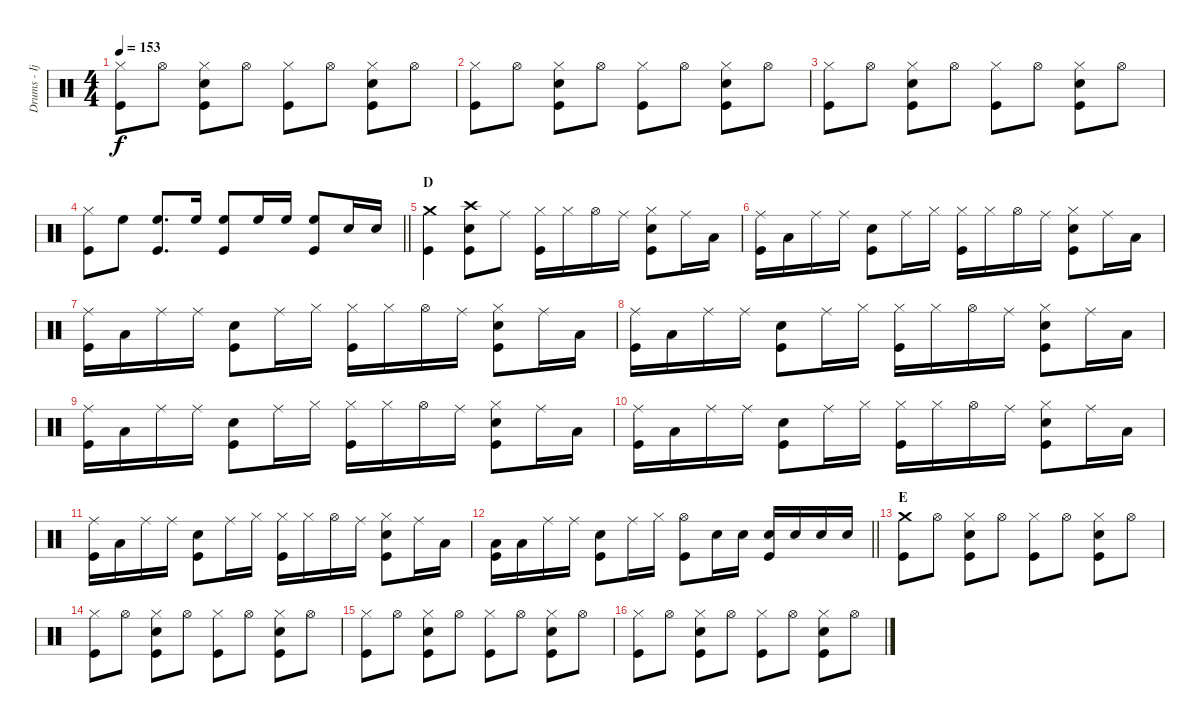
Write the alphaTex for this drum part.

\track ("Drums - Ijichi" "Drums - Ij") {instrument percussion}
\staff {score}
\articulation defaults
\ts (4 4)
\tempo 153
\clef neutral
\ks c
("Hi-Hat (closed)" "Kick (hit)").8{dy f} "Hi-Hat (open)".8 ("Hi-Hat (closed)" "Electric Snare (hit)" "Kick (hit)").8 "Hi-Hat (open)".8 ("Hi-Hat (closed)" "Kick (hit)").8 "Hi-Hat (open)".8 ("Hi-Hat (closed)" "Electric Snare (hit)" "Kick (hit)").8 "Hi-Hat (open)".8 |
("Hi-Hat (closed)" "Kick (hit)").8 "Hi-Hat (open)".8 ("Hi-Hat (closed)" "Electric Snare (hit)" "Kick (hit)").8 "Hi-Hat (open)".8 ("Hi-Hat (closed)" "Kick (hit)").8 "Hi-Hat (open)".8 ("Hi-Hat (closed)" "Electric Snare (hit)" "Kick (hit)").8 "Hi-Hat (open)".8 |
("Hi-Hat (closed)" "Kick (hit)").8 "Hi-Hat (open)".8 ("Hi-Hat (closed)" "Electric Snare (hit)" "Kick (hit)").8 "Hi-Hat (open)".8 ("Hi-Hat (closed)" "Kick (hit)").8 "Hi-Hat (open)".8 ("Hi-Hat (closed)" "Electric Snare (hit)" "Kick (hit)").8 "Hi-Hat (open)".8 |
\barLineRight lightlight
("Hi-Hat (closed)" "Kick (hit)").8 "High Floor Tom (hit)".8 ("High Floor Tom (hit)" "Kick (hit)").8{d} "High Floor Tom (hit)".16 ("High Floor Tom (hit)" "Kick (hit)").8 "High Floor Tom (hit)".16 "High Floor Tom (hit)".16 ("High Floor Tom (hit)" "Kick (hit)").8 "Electric Snare (hit)".16 "Electric Snare (hit)".16 |
\section ("" "D")
("Crash medium (hit)" "Kick (hit)").4 ("Crash high (hit)" "Electric Snare (hit)" "Kick (hit)").8 "Ride (middle)".8 ("Hi-Hat (closed)" "Kick (hit)").16 "Hi-Hat (closed)".16 "Hi-Hat (open)".16 "Ride (middle)".16 ("Hi-Hat (closed)" "Electric Snare (hit)" "Kick (hit)").8 "Ride (middle)".16 "Low Tom (hit)".16 |
("Ride (middle)" "Kick (hit)").16 "Low Tom (hit)".16 "Ride (middle)".16 "Ride (middle)".16 ("Electric Snare (hit)" "Kick (hit)").8 "Ride (middle)".16 "Hi-Hat (closed)".16 ("Hi-Hat (closed)" "Kick (hit)").16 "Hi-Hat (closed)".16 "Hi-Hat (open)".16 "Ride (middle)".16 ("Hi-Hat (closed)" "Electric Snare (hit)" "Kick (hit)").8 "Ride (middle)".16 "Low Tom (hit)".16 |
("Ride (middle)" "Kick (hit)").16 "Low Tom (hit)".16 "Ride (middle)".16 "Ride (middle)".16 ("Electric Snare (hit)" "Kick (hit)").8 "Ride (middle)".16 "Hi-Hat (closed)".16 ("Hi-Hat (closed)" "Kick (hit)").16 "Hi-Hat (closed)".16 "Hi-Hat (open)".16 "Ride (middle)".16 ("Hi-Hat (closed)" "Electric Snare (hit)" "Kick (hit)").8 "Ride (middle)".16 "Low Tom (hit)".16 |
("Ride (middle)" "Kick (hit)").16 "Low Tom (hit)".16 "Ride (middle)".16 "Ride (middle)".16 ("Electric Snare (hit)" "Kick (hit)").8 "Ride (middle)".16 "Hi-Hat (closed)".16 ("Hi-Hat (closed)" "Kick (hit)").16 "Hi-Hat (closed)".16 "Hi-Hat (open)".16 "Ride (middle)".16 ("Hi-Hat (closed)" "Electric Snare (hit)" "Kick (hit)").8 "Ride (middle)".16 "Low Tom (hit)".16 |
("Ride (middle)" "Kick (hit)").16 "Low Tom (hit)".16 "Ride (middle)".16 "Ride (middle)".16 ("Electric Snare (hit)" "Kick (hit)").8 "Ride (middle)".16 "Hi-Hat (closed)".16 ("Hi-Hat (closed)" "Kick (hit)").16 "Hi-Hat (closed)".16 "Hi-Hat (open)".16 "Ride (middle)".16 ("Hi-Hat (closed)" "Electric Snare (hit)" "Kick (hit)").8 "Ride (middle)".16 "Low Tom (hit)".16 |
("Ride (middle)" "Kick (hit)").16 "Low Tom (hit)".16 "Ride (middle)".16 "Ride (middle)".16 ("Electric Snare (hit)" "Kick (hit)").8 "Ride (middle)".16 "Hi-Hat (closed)".16 ("Hi-Hat (closed)" "Kick (hit)").16 "Hi-Hat (closed)".16 "Hi-Hat (open)".16 "Ride (middle)".16 ("Hi-Hat (closed)" "Electric Snare (hit)" "Kick (hit)").8 "Ride (middle)".16 "Low Tom (hit)".16 |
("Ride (middle)" "Kick (hit)").16 "Low Tom (hit)".16 "Ride (middle)".16 "Ride (middle)".16 ("Electric Snare (hit)" "Kick (hit)").8 "Ride (middle)".16 "Hi-Hat (closed)".16 ("Hi-Hat (closed)" "Kick (hit)").16 "Hi-Hat (closed)".16 "Hi-Hat (open)".16 "Ride (middle)".16 ("Hi-Hat (closed)" "Electric Snare (hit)" "Kick (hit)").8 "Ride (middle)".16 "Low Tom (hit)".16 |
\barLineRight lightlight
("Low Tom (hit)" "Kick (hit)").16 "Low Tom (hit)".16 "Ride (middle)".16 "Ride (middle)".16 ("Electric Snare (hit)" "Kick (hit)").8 "Ride (middle)".16 "Hi-Hat (closed)".16 ("Hi-Hat (open)" "Kick (hit)").8 "Electric Snare (hit)".16 "Electric Snare (hit)".16 ("Electric Snare (hit)" "Kick (hit)").16 "Electric Snare (hit)".16 "Electric Snare (hit)".16 "Electric Snare (hit)".16 |
\section ("" "E")
("Crash medium (hit)" "Kick (hit)").8 "Hi-Hat (open)".8 ("Hi-Hat (closed)" "Electric Snare (hit)" "Kick (hit)").8 "Hi-Hat (open)".8 ("Hi-Hat (closed)" "Kick (hit)").8 "Hi-Hat (open)".8 ("Hi-Hat (closed)" "Electric Snare (hit)" "Kick (hit)").8 "Hi-Hat (open)".8 |
("Hi-Hat (closed)" "Kick (hit)").8 "Hi-Hat (open)".8 ("Hi-Hat (closed)" "Electric Snare (hit)" "Kick (hit)").8 "Hi-Hat (open)".8 ("Hi-Hat (closed)" "Kick (hit)").8 "Hi-Hat (open)".8 ("Hi-Hat (closed)" "Electric Snare (hit)" "Kick (hit)").8 "Hi-Hat (open)".8 |
("Hi-Hat (closed)" "Kick (hit)").8 "Hi-Hat (open)".8 ("Hi-Hat (closed)" "Electric Snare (hit)" "Kick (hit)").8 "Hi-Hat (open)".8 ("Hi-Hat (closed)" "Kick (hit)").8 "Hi-Hat (open)".8 ("Hi-Hat (closed)" "Electric Snare (hit)" "Kick (hit)").8 "Hi-Hat (open)".8 |
("Hi-Hat (closed)" "Kick (hit)").8 "Hi-Hat (open)".8 ("Hi-Hat (closed)" "Electric Snare (hit)" "Kick (hit)").8 "Hi-Hat (open)".8 ("Hi-Hat (closed)" "Kick (hit)").8 "Hi-Hat (open)".8 ("Hi-Hat (closed)" "Electric Snare (hit)" "Kick (hit)").8 "Hi-Hat (open)".8
